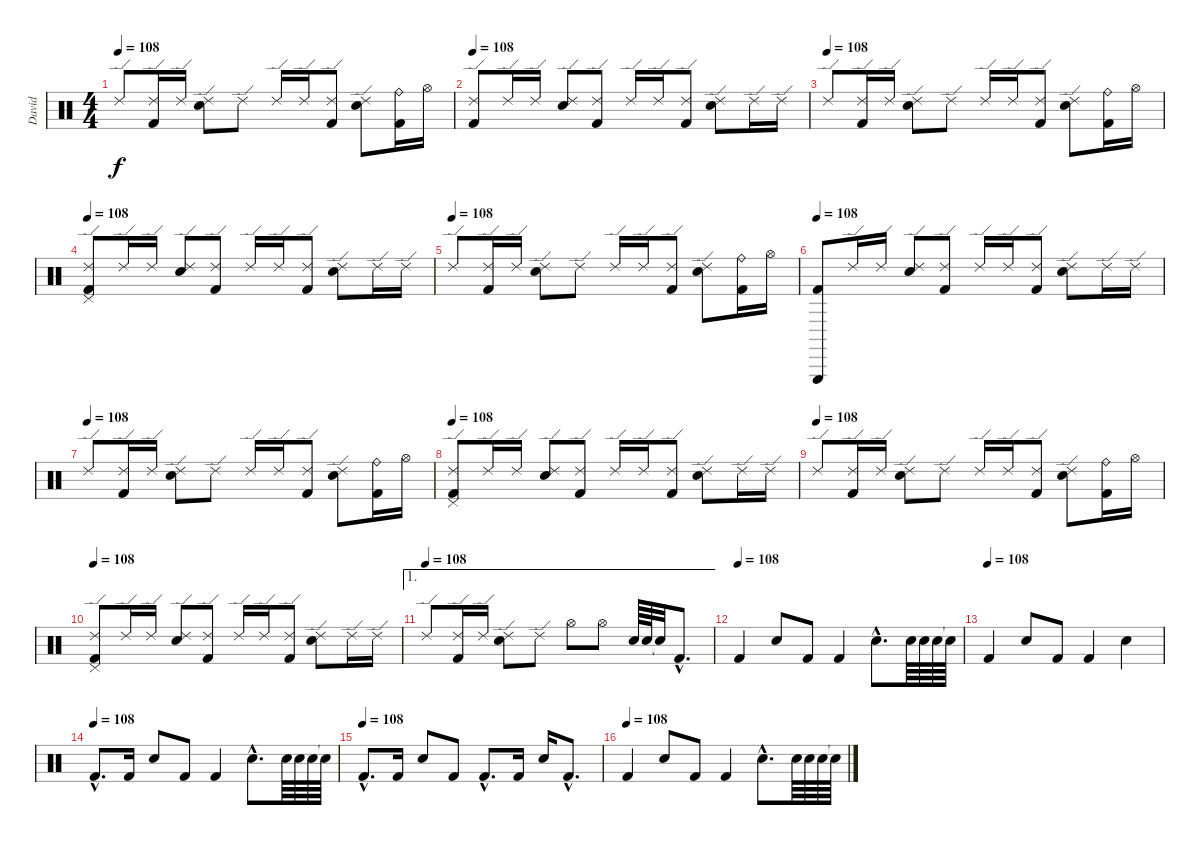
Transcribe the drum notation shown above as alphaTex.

\track ("David" "David") {instrument percussion}
\staff {score}
\articulation defaults
\ts (4 4)
\tempo 108
\clef neutral
\ks c "Ride (edge) 2".8{dy f}
("Ride (edge) 2" "Kick (hit) 2").16 "Ride (edge) 2".16 ("Ride (edge) 2" "Snare (hit) 2").8 "Ride (edge) 2".8 "Ride (edge) 2".16 "Ride (edge) 2".16 ("Ride (edge) 2" "Kick (hit) 2").8 ("Ride (edge) 2" "Snare (hit) 2").8 ("Ride (bell)" "Kick (hit) 2").16 "Hi-Hat (open)".16 |
\tempo 108
("Ride (edge) 2" "Kick (hit) 2").8 "Ride (edge) 2".16 "Ride (edge) 2".16 ("Ride (edge) 2" "Snare (hit) 2").8 ("Ride (edge) 2" "Kick (hit) 2").8 "Ride (edge) 2".16 "Ride (edge) 2".16 ("Ride (edge) 2" "Kick (hit) 2").8 ("Ride (edge) 2" "Snare (hit) 2").8 "Ride (edge) 2".16 "Ride (edge) 2".16 |
\tempo (108)
"Ride (edge) 2".8 ("Ride (edge) 2" "Kick (hit) 2").16 "Ride (edge) 2".16 ("Ride (edge) 2" "Snare (hit) 2").8 "Ride (edge) 2".8 "Ride (edge) 2".16 "Ride (edge) 2".16 ("Ride (edge) 2" "Kick (hit) 2").8 ("Ride (edge) 2" "Snare (hit) 2").8 ("Ride (bell)" "Kick (hit) 2").16 "Hi-Hat (open)".16 |
\tempo 108
("Ride (edge) 2" "Pedal Hi-Hat (hit)" "Kick (hit) 2").8 "Ride (edge) 2".16 "Ride (edge) 2".16 ("Ride (edge) 2" "Snare (hit) 2").8 ("Ride (edge) 2" "Kick (hit) 2").8 "Ride (edge) 2".16 "Ride (edge) 2".16 ("Ride (edge) 2" "Kick (hit) 2").8 ("Ride (edge) 2" "Snare (hit) 2").8 "Ride (edge) 2".16 "Ride (edge) 2".16 |
\tempo (108)
"Ride (edge) 2".8 ("Ride (edge) 2" "Kick (hit) 2").16 "Ride (edge) 2".16 ("Ride (edge) 2" "Snare (hit) 2").8 "Ride (edge) 2".8 "Ride (edge) 2".16 "Ride (edge) 2".16 ("Ride (edge) 2" "Kick (hit) 2").8 ("Ride (edge) 2" "Snare (hit) 2").8 ("Ride (bell)" "Kick (hit) 2").16 "Hi-Hat (open)".16 |
\tempo 108
("Triangle (hit)" "Kick (hit) 2").8 "Ride (edge) 2".16 "Ride (edge) 2".16 ("Ride (edge) 2" "Snare (hit) 2").8 ("Ride (edge) 2" "Kick (hit) 2").8 "Ride (edge) 2".16 "Ride (edge) 2".16 ("Ride (edge) 2" "Kick (hit) 2").8 ("Ride (edge) 2" "Snare (hit) 2").8 "Ride (edge) 2".16 "Ride (edge) 2".16 |
\tempo (108)
"Ride (edge) 2".8 ("Ride (edge) 2" "Kick (hit) 2").16 "Ride (edge) 2".16 ("Ride (edge) 2" "Snare (hit) 2").8 "Ride (edge) 2".8 "Ride (edge) 2".16 "Ride (edge) 2".16 ("Ride (edge) 2" "Kick (hit) 2").8 ("Ride (edge) 2" "Snare (hit) 2").8 ("Ride (bell)" "Kick (hit) 2").16 "Hi-Hat (open)".16 |
\tempo 108
("Ride (edge) 2" "Pedal Hi-Hat (hit)" "Kick (hit) 2").8 "Ride (edge) 2".16 "Ride (edge) 2".16 ("Ride (edge) 2" "Snare (hit) 2").8 ("Ride (edge) 2" "Kick (hit) 2").8 "Ride (edge) 2".16 "Ride (edge) 2".16 ("Ride (edge) 2" "Kick (hit) 2").8 ("Ride (edge) 2" "Snare (hit) 2").8 "Ride (edge) 2".16 "Ride (edge) 2".16 |
\tempo (108)
"Ride (edge) 2".8 ("Ride (edge) 2" "Kick (hit) 2").16 "Ride (edge) 2".16 ("Ride (edge) 2" "Snare (hit) 2").8 "Ride (edge) 2".8 "Ride (edge) 2".16 "Ride (edge) 2".16 ("Ride (edge) 2" "Kick (hit) 2").8 ("Ride (edge) 2" "Snare (hit) 2").8 ("Ride (bell)" "Kick (hit) 2").16 "Hi-Hat (open)".16 |
\tempo 108
("Ride (edge) 2" "Pedal Hi-Hat (hit)" "Kick (hit) 2").8 "Ride (edge) 2".16 "Ride (edge) 2".16 ("Ride (edge) 2" "Snare (hit) 2").8 ("Ride (edge) 2" "Kick (hit) 2").8 "Ride (edge) 2".16 "Ride (edge) 2".16 ("Ride (edge) 2" "Kick (hit) 2").8 ("Ride (edge) 2" "Snare (hit) 2").8 "Ride (edge) 2".16 "Ride (edge) 2".16 |
\ae 1
\tempo (108)
"Ride (edge) 2".8 ("Ride (edge) 2" "Kick (hit) 2").16 "Ride (edge) 2".16 ("Ride (edge) 2" "Snare (hit) 2").8 "Ride (edge) 2".8 "Hi-Hat (open)".8 "Hi-Hat (open)".8 "Snare (hit) 2".64 "Snare (hit) 2".64 "Snare (hit)"{t}.32 "Kick (hit) 2"{hac}.8{d} |
\tempo (108)
"Kick (hit) 2".4 "Snare (hit) 2".8 "Kick (hit) 2".8 "Kick (hit) 2".4 "Snare (hit) 2"{hac}.8{d} "Snare (hit) 2".64 "Snare (hit) 2".64 "Snare (hit) 2".64 "Snare (hit)"{t}.64 |
\tempo (108)
"Kick (hit) 2".4 "Snare (hit) 2".8 "Kick (hit) 2".8 "Kick (hit) 2".4 "Snare (hit) 2".4 |
\tempo (108)
"Kick (hit) 2"{hac}.8{d} "Kick (hit) 2".16 "Snare (hit) 2".8 "Kick (hit) 2".8 "Kick (hit) 2".4 "Snare (hit) 2"{hac}.8{d} "Snare (hit) 2".64 "Snare (hit) 2".64 "Snare (hit) 2".64 "Snare (hit)"{t}.64 |
\tempo (108)
"Kick (hit) 2"{hac}.8{d} "Kick (hit) 2".16 "Snare (hit) 2".8 "Kick (hit) 2".8 "Kick (hit) 2"{hac}.8{d} "Kick (hit) 2".16 "Snare (hit) 2".16 "Kick (hit) 2"{hac}.8{d} |
\tempo (108)
"Kick (hit) 2".4 "Snare (hit) 2".8 "Kick (hit) 2".8 "Kick (hit) 2".4 "Snare (hit) 2"{hac}.8{d} "Snare (hit) 2".64 "Snare (hit) 2".64 "Snare (hit) 2".64 "Snare (hit)"{t}.64
